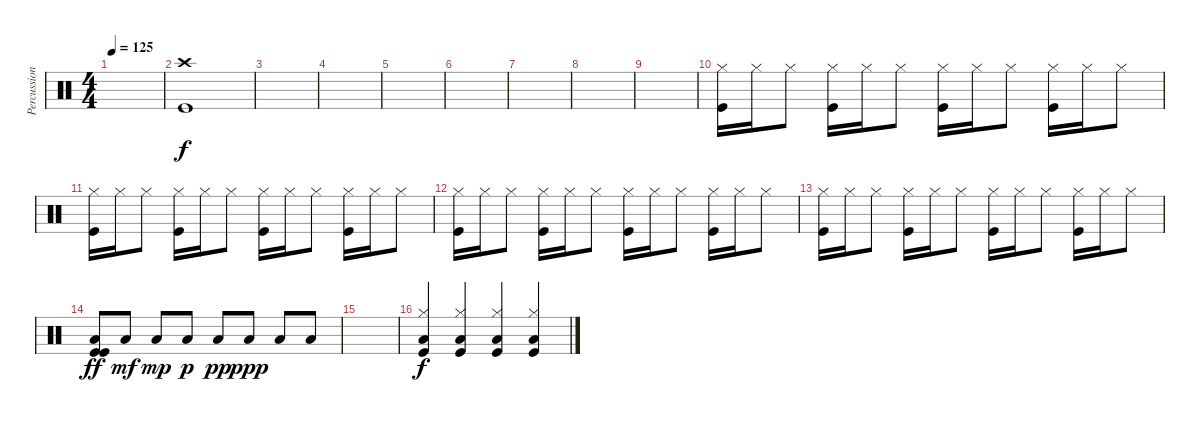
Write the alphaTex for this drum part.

\track ("Percussions" "Percussion") {instrument percussion}
\staff {score}
\articulation defaults
\ts (4 4)
\tempo 125
\clef neutral
\ks c
|
("Crash high (hit)" "Kick (hit)").1 |
|
|
|
|
|
|
|
("Hi-Hat (closed)" "Kick (hit)").16{volume 9} "Hi-Hat (closed)".16 "Hi-Hat (closed)".8 ("Hi-Hat (closed)" "Kick (hit)").16 "Hi-Hat (closed)".16 "Hi-Hat (closed)".8 ("Hi-Hat (closed)" "Kick (hit)").16 "Hi-Hat (closed)".16 "Hi-Hat (closed)".8 ("Hi-Hat (closed)" "Kick (hit)").16 "Hi-Hat (closed)".16 "Hi-Hat (closed)".8 |
("Hi-Hat (closed)" "Kick (hit)").16 "Hi-Hat (closed)".16 "Hi-Hat (closed)".8 ("Hi-Hat (closed)" "Kick (hit)").16 "Hi-Hat (closed)".16 "Hi-Hat (closed)".8 ("Hi-Hat (closed)" "Kick (hit)").16 "Hi-Hat (closed)".16 "Hi-Hat (closed)".8 ("Hi-Hat (closed)" "Kick (hit)").16 "Hi-Hat (closed)".16 "Hi-Hat (closed)".8 |
("Hi-Hat (closed)" "Kick (hit)").16 "Hi-Hat (closed)".16 "Hi-Hat (closed)".8 ("Hi-Hat (closed)" "Kick (hit)").16 "Hi-Hat (closed)".16 "Hi-Hat (closed)".8 ("Hi-Hat (closed)" "Kick (hit)").16 "Hi-Hat (closed)".16 "Hi-Hat (closed)".8 ("Hi-Hat (closed)" "Kick (hit)").16 "Hi-Hat (closed)".16 "Hi-Hat (closed)".8 |
("Hi-Hat (closed)" "Kick (hit)").16 "Hi-Hat (closed)".16 "Hi-Hat (closed)".8 ("Hi-Hat (closed)" "Kick (hit)").16 "Hi-Hat (closed)".16 "Hi-Hat (closed)".8 ("Hi-Hat (closed)" "Kick (hit)").16 "Hi-Hat (closed)".16 "Hi-Hat (closed)".8 ("Hi-Hat (closed)" "Kick (hit)").16 "Hi-Hat (closed)".16 "Hi-Hat (closed)".8 |
("Kick (hit)" "Kick (hit)" "Low Floor Tom (hit)").8{dy ff} "Low Floor Tom (hit)".8{dy mf} "Low Floor Tom (hit)".8{dy mp} "Low Floor Tom (hit)".8{dy p} "Low Floor Tom (hit)".8{dy pp} "Low Floor Tom (hit)".8{dy ppp} "Low Floor Tom (hit)".8 "Low Floor Tom (hit)".8 |
|
("Hi-Hat (closed)" "Low Floor Tom (hit)" "Kick (hit)").4{dy f} ("Hi-Hat (closed)" "Low Floor Tom (hit)" "Kick (hit)").4 ("Hi-Hat (closed)" "Low Floor Tom (hit)" "Kick (hit)").4 ("Hi-Hat (closed)" "Low Floor Tom (hit)" "Kick (hit)").4
